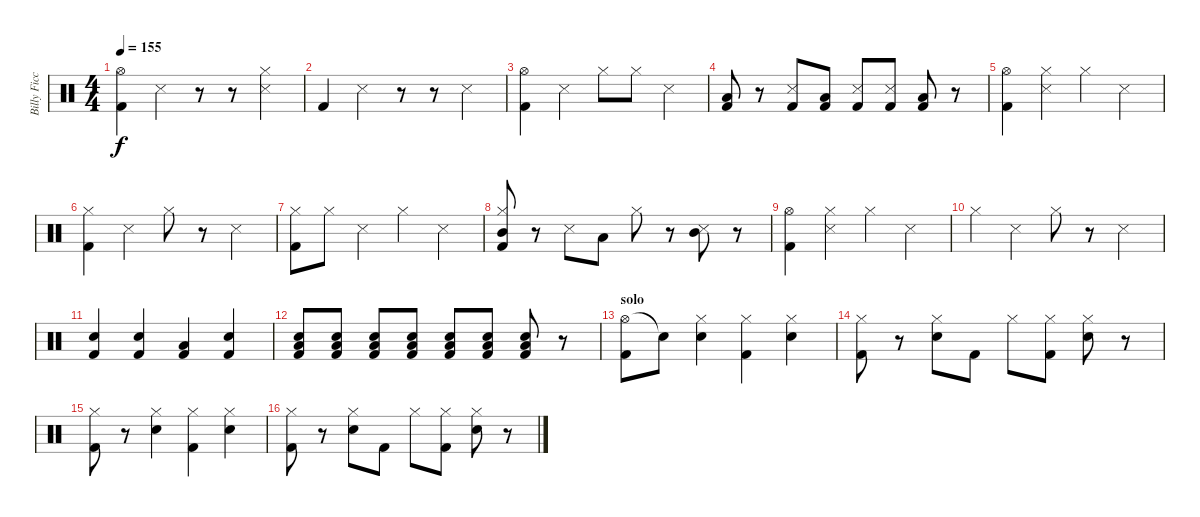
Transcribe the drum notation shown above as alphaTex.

\track ("Billy Ficca" "Billy Ficc") {instrument percussion}
\staff {score}
\articulation defaults
\ts (4 4)
\tempo 155
\clef neutral
\ks c
("Hi-Hat (open)" "Kick (hit) 2").4{dy f} "Snare (side stick) 3".4 r.8 r.8 ("Hi-Hat (closed)" "Snare (side stick) 3").4 |
"Kick (hit) 2".4 "Snare (side stick) 3".4 r.8 r.8 "Snare (side stick) 3".4 |
("Hi-Hat (open)" "Kick (hit) 2").4 "Snare (side stick) 3".4 "Hi-Hat (closed)".8 "Hi-Hat (closed)".8 "Snare (side stick) 3".4 |
("Low Tom (hit)" "Kick (hit) 2").8 r.8 ("Snare (side stick) 3" "Kick (hit) 2").8 ("Low Tom (hit)" "Kick (hit) 2").8 ("Snare (side stick) 3" "Kick (hit) 2").8 ("Snare (side stick) 3" "Kick (hit) 2").8 ("Low Tom (hit)" "Kick (hit) 2").8 r.8 |
("Hi-Hat (open)" "Kick (hit) 2").4 ("Hi-Hat (closed)" "Snare (side stick) 3").4 "Hi-Hat (closed)".4 "Snare (side stick) 3".4 |
("Hi-Hat (closed)" "Kick (hit) 2").4 "Snare (side stick) 3".4 "Hi-Hat (closed)".8 r.8 "Snare (side stick) 3".4 |
("Hi-Hat (closed)" "Kick (hit) 2").8 "Hi-Hat (closed)".8 "Snare (side stick) 3".4 "Hi-Hat (closed)".4 "Snare (side stick) 3".4 |
("Hi-Hat (closed)" "Mid Tom (hit)" "Kick (hit) 2").8 r.8 "Snare (side stick) 3".8 "Low Tom (hit)".8 "Hi-Hat (closed)".8 r.8 ("Snare (side stick) 3" "Mid Tom (hit)").8 r.8 |
("Hi-Hat (open)" "Kick (hit) 2").4 ("Hi-Hat (closed)" "Snare (side stick) 3").4 "Hi-Hat (closed)".4 "Snare (side stick) 3".4 |
"Hi-Hat (closed)".4 "Snare (side stick) 3".4 "Hi-Hat (closed)".8 r.8 "Snare (side stick) 3".4 |
("Electric Snare (hit)" "Kick (hit) 2").4 ("Electric Snare (hit)" "Kick (hit) 2").4 ("Low Tom (hit)" "Kick (hit) 2").4 ("Electric Snare (hit)" "Kick (hit) 2").4 |
("Kick (hit) 2" "Electric Snare (hit)" "Low Tom (hit)").8 ("Kick (hit) 2" "Electric Snare (hit)" "Low Tom (hit)").8 ("Kick (hit) 2" "Electric Snare (hit)" "Low Tom (hit)").8 ("Kick (hit) 2" "Electric Snare (hit)" "Low Tom (hit)").8 ("Kick (hit) 2" "Electric Snare (hit)" "Low Tom (hit)").8 ("Kick (hit) 2" "Electric Snare (hit)" "Low Tom (hit)").8 ("Kick (hit) 2" "Electric Snare (hit)" "Low Tom (hit)").8 r.8 |
\section ("" "solo")
("Hi-Hat (open)" "Kick (hit) 2").8 "Snare (hit)"{t}.8 ("Hi-Hat (closed)" "Electric Snare (hit)").4 ("Hi-Hat (closed)" "Kick (hit) 2").4 ("Hi-Hat (closed)" "Electric Snare (hit)").4 |
("Hi-Hat (closed)" "Kick (hit) 2").8 r.8 ("Hi-Hat (closed)" "Electric Snare (hit)").8 "Kick (hit) 2".8 "Hi-Hat (closed)".8 ("Hi-Hat (closed)" "Kick (hit) 2").8 ("Hi-Hat (closed)" "Electric Snare (hit)").8 r.8 |
("Hi-Hat (closed)" "Kick (hit) 2").8 r.8 ("Hi-Hat (closed)" "Electric Snare (hit)").4 ("Hi-Hat (closed)" "Kick (hit) 2").4 ("Hi-Hat (closed)" "Electric Snare (hit)").4 |
("Hi-Hat (closed)" "Kick (hit) 2").8 r.8 ("Hi-Hat (closed)" "Electric Snare (hit)").8 "Kick (hit) 2".8 "Hi-Hat (closed)".8 ("Hi-Hat (closed)" "Kick (hit) 2").8 ("Hi-Hat (closed)" "Electric Snare (hit)").8 r.8
